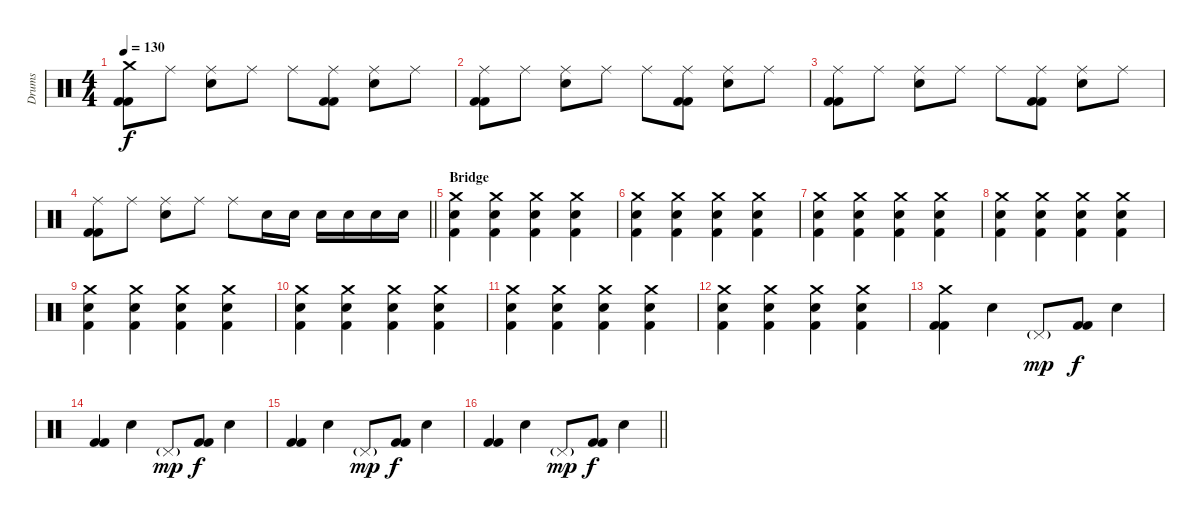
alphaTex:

\track ("Drums" "Drums") {instrument percussion}
\staff {score}
\articulation defaults
\ts (4 4)
\tempo 130
\clef neutral
\ks c
("Crash medium (hit)" "Kick (hit) 2" "Kick (hit) 2").8{dy f} "Ride (middle)".8 ("Ride (middle)" "Electric Snare (hit)").8 "Ride (middle)".8 "Ride (middle)".8 ("Ride (middle)" "Kick (hit) 2" "Kick (hit) 2").8 ("Ride (middle)" "Electric Snare (hit)").8 "Ride (middle)".8 |
("Ride (middle)" "Kick (hit) 2" "Kick (hit) 2").8 "Ride (middle)".8 ("Ride (middle)" "Electric Snare (hit)").8 "Ride (middle)".8 "Ride (middle)".8 ("Ride (middle)" "Kick (hit) 2" "Kick (hit) 2").8 ("Ride (middle)" "Electric Snare (hit)").8 "Ride (middle)".8 |
("Ride (middle)" "Kick (hit) 2" "Kick (hit) 2").8 "Ride (middle)".8 ("Ride (middle)" "Electric Snare (hit)").8 "Ride (middle)".8 "Ride (middle)".8 ("Ride (middle)" "Kick (hit) 2" "Kick (hit) 2").8 ("Ride (middle)" "Electric Snare (hit)").8 "Ride (middle)".8 |
\barLineRight lightlight
("Ride (middle)" "Kick (hit) 2" "Kick (hit) 2").8 "Ride (middle)".8 ("Ride (middle)" "Electric Snare (hit)").8 "Ride (middle)".8 "Ride (middle)".8 "Electric Snare (hit)".16 "Electric Snare (hit)".16 "Electric Snare (hit)".16 "Electric Snare (hit)".16 "Electric Snare (hit)".16 "Electric Snare (hit)".16 |
\section ("" "Bridge")
("Crash medium (hit)" "Electric Snare (hit)" "Kick (hit) 2").4 ("Crash medium (hit)" "Electric Snare (hit)" "Kick (hit) 2").4 ("Crash medium (hit)" "Electric Snare (hit)" "Kick (hit) 2").4 ("Crash medium (hit)" "Electric Snare (hit)" "Kick (hit) 2").4 |
("Crash medium (hit)" "Electric Snare (hit)" "Kick (hit) 2").4 ("Crash medium (hit)" "Electric Snare (hit)" "Kick (hit) 2").4 ("Crash medium (hit)" "Electric Snare (hit)" "Kick (hit) 2").4 ("Crash medium (hit)" "Electric Snare (hit)" "Kick (hit) 2").4 |
("Crash medium (hit)" "Electric Snare (hit)" "Kick (hit) 2").4 ("Crash medium (hit)" "Electric Snare (hit)" "Kick (hit) 2").4 ("Crash medium (hit)" "Electric Snare (hit)" "Kick (hit) 2").4 ("Crash medium (hit)" "Electric Snare (hit)" "Kick (hit) 2").4 |
("Crash medium (hit)" "Electric Snare (hit)" "Kick (hit) 2").4 ("Crash medium (hit)" "Electric Snare (hit)" "Kick (hit) 2").4 ("Crash medium (hit)" "Electric Snare (hit)" "Kick (hit) 2").4 ("Crash medium (hit)" "Electric Snare (hit)" "Kick (hit) 2").4 |
("Crash medium (hit)" "Electric Snare (hit)" "Kick (hit) 2").4 ("Crash medium (hit)" "Electric Snare (hit)" "Kick (hit) 2").4 ("Crash medium (hit)" "Electric Snare (hit)" "Kick (hit) 2").4 ("Crash medium (hit)" "Electric Snare (hit)" "Kick (hit) 2").4 |
("Crash medium (hit)" "Electric Snare (hit)" "Kick (hit) 2").4 ("Crash medium (hit)" "Electric Snare (hit)" "Kick (hit) 2").4 ("Crash medium (hit)" "Electric Snare (hit)" "Kick (hit) 2").4 ("Crash medium (hit)" "Electric Snare (hit)" "Kick (hit) 2").4 |
("Crash medium (hit)" "Electric Snare (hit)" "Kick (hit) 2").4 ("Crash medium (hit)" "Electric Snare (hit)" "Kick (hit) 2").4 ("Crash medium (hit)" "Electric Snare (hit)" "Kick (hit) 2").4 ("Crash medium (hit)" "Electric Snare (hit)" "Kick (hit) 2").4 |
("Crash medium (hit)" "Electric Snare (hit)" "Kick (hit) 2").4 ("Crash medium (hit)" "Electric Snare (hit)" "Kick (hit) 2").4 ("Crash medium (hit)" "Electric Snare (hit)" "Kick (hit) 2").4 ("Crash medium (hit)" "Electric Snare (hit)" "Kick (hit) 2").4 |
("Crash medium (hit)" "Kick (hit) 2" "Kick (hit) 2").4 "Electric Snare (hit)".4 "Pedal Hi-Hat (hit)"{g}.8{dy mp} ("Kick (hit) 2" "Kick (hit) 2").8{dy f} "Electric Snare (hit)".4 |
("Kick (hit) 2" "Kick (hit) 2").4 "Electric Snare (hit)".4 "Pedal Hi-Hat (hit)"{g}.8{dy mp} ("Kick (hit) 2" "Kick (hit) 2").8{dy f} "Electric Snare (hit)".4 |
("Kick (hit) 2" "Kick (hit) 2").4 "Electric Snare (hit)".4 "Pedal Hi-Hat (hit)"{g}.8{dy mp} ("Kick (hit) 2" "Kick (hit) 2").8{dy f} "Electric Snare (hit)".4 |
\barLineRight lightlight
("Kick (hit) 2" "Kick (hit) 2").4 "Electric Snare (hit)".4 "Pedal Hi-Hat (hit)"{g}.8{dy mp} ("Kick (hit) 2" "Kick (hit) 2").8{dy f} "Electric Snare (hit)".4
